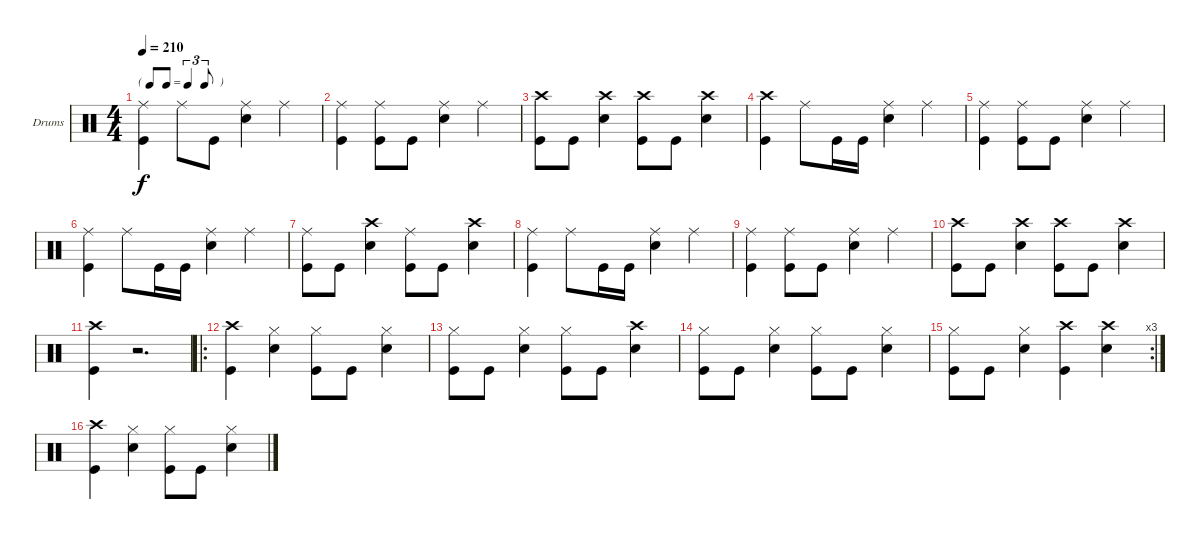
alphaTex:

\bracketExtendMode groupsimilarinstruments
\firstSystemTrackNameOrientation horizontal
\otherSystemsTrackNameOrientation horizontal
\track ("Drums" "Drums") {instrument percussion}
\staff {score}
\articulation defaults
\ts (4 4)
\tf triplet8th
\tempo 210
\clef neutral
\ks c
("Ride (middle)" "Kick (hit)").4{dy f} "Ride (middle)".8 "Kick (hit)".8 ("Ride (middle)" "Snare (hit) 2").4 "Ride (middle)".4 |
("Kick (hit)" "Ride (middle)").4 ("Ride (middle)" "Kick (hit)").8 "Kick (hit)".8 ("Snare (hit) 2" "Ride (middle)").4 "Ride (middle)".4 |
("Kick (hit)" "Crash high (hit)").8 "Kick (hit)".8 ("Snare (hit) 2" "Crash high (hit)").4 ("Kick (hit)" "Crash high (hit)").8 "Kick (hit)".8 ("Snare (hit) 2" "Crash high (hit)").4 |
("Kick (hit)" "Crash high (hit)").4 "Ride (middle)".8 "Kick (hit)".16 "Kick (hit)".16 ("Snare (hit) 2" "Ride (middle)").4 "Ride (middle)".4 |
("Kick (hit)" "Ride (middle)").4 ("Ride (middle)" "Kick (hit)").8 "Kick (hit)".8 ("Snare (hit) 2" "Ride (middle)").4 "Ride (middle)".4 |
("Kick (hit)" "Ride (middle)").4 "Ride (middle)".8 "Kick (hit)".16 "Kick (hit)".16 ("Ride (middle)" "Snare (hit) 2").4 "Ride (middle)".4 |
("Ride (middle)" "Kick (hit)").8 "Kick (hit)".8 ("Snare (hit) 2" "Crash high (hit)").4 ("Ride (middle)" "Kick (hit)").8 "Kick (hit)".8 ("Snare (hit) 2" "Crash high (hit)").4 |
("Ride (middle)" "Kick (hit)").4 "Ride (middle)".8 "Kick (hit)".16 "Kick (hit)".16 ("Ride (middle)" "Snare (hit) 2").4 "Ride (middle)".4 |
("Kick (hit)" "Ride (middle)").4 ("Ride (middle)" "Kick (hit)").8 "Kick (hit)".8 ("Snare (hit) 2" "Ride (middle)").4 "Ride (middle)".4 |
("Kick (hit)" "Crash high (hit)").8 "Kick (hit)".8 ("Snare (hit) 2" "Crash high (hit)").4 ("Kick (hit)" "Crash high (hit)").8 "Kick (hit)".8 ("Snare (hit) 2" "Crash high (hit)").4 |
("Kick (hit)" "Crash high (hit)").4 r.2{d} |
\ro
("Kick (hit)" "Crash high (hit)").4 ("Hi-Hat (closed)" "Snare (hit) 2").4 ("Hi-Hat (closed)" "Kick (hit)").8 "Kick (hit)".8 ("Snare (hit) 2" "Hi-Hat (closed)").4 |
("Hi-Hat (closed)" "Kick (hit)").8 "Kick (hit)".8 ("Snare (hit) 2" "Hi-Hat (closed)").4 ("Hi-Hat (closed)" "Kick (hit)").8 "Kick (hit)".8 ("Crash high (hit)" "Snare (hit) 2").4 |
("Hi-Hat (closed)" "Kick (hit)").8 "Kick (hit)".8 ("Snare (hit) 2" "Hi-Hat (closed)").4 ("Hi-Hat (closed)" "Kick (hit)").8 "Kick (hit)".8 ("Snare (hit) 2" "Hi-Hat (closed)").4 |
\rc 3
("Hi-Hat (closed)" "Kick (hit)").8 "Kick (hit)".8 ("Snare (hit) 2" "Hi-Hat (closed)").4 ("Crash high (hit)" "Kick (hit)").4 ("Crash high (hit)" "Snare (hit) 2").4 |
("Kick (hit)" "Crash high (hit)").4 ("Hi-Hat (closed)" "Snare (hit) 2").4 ("Hi-Hat (closed)" "Kick (hit)").8 "Kick (hit)".8 ("Snare (hit) 2" "Hi-Hat (closed)").4
